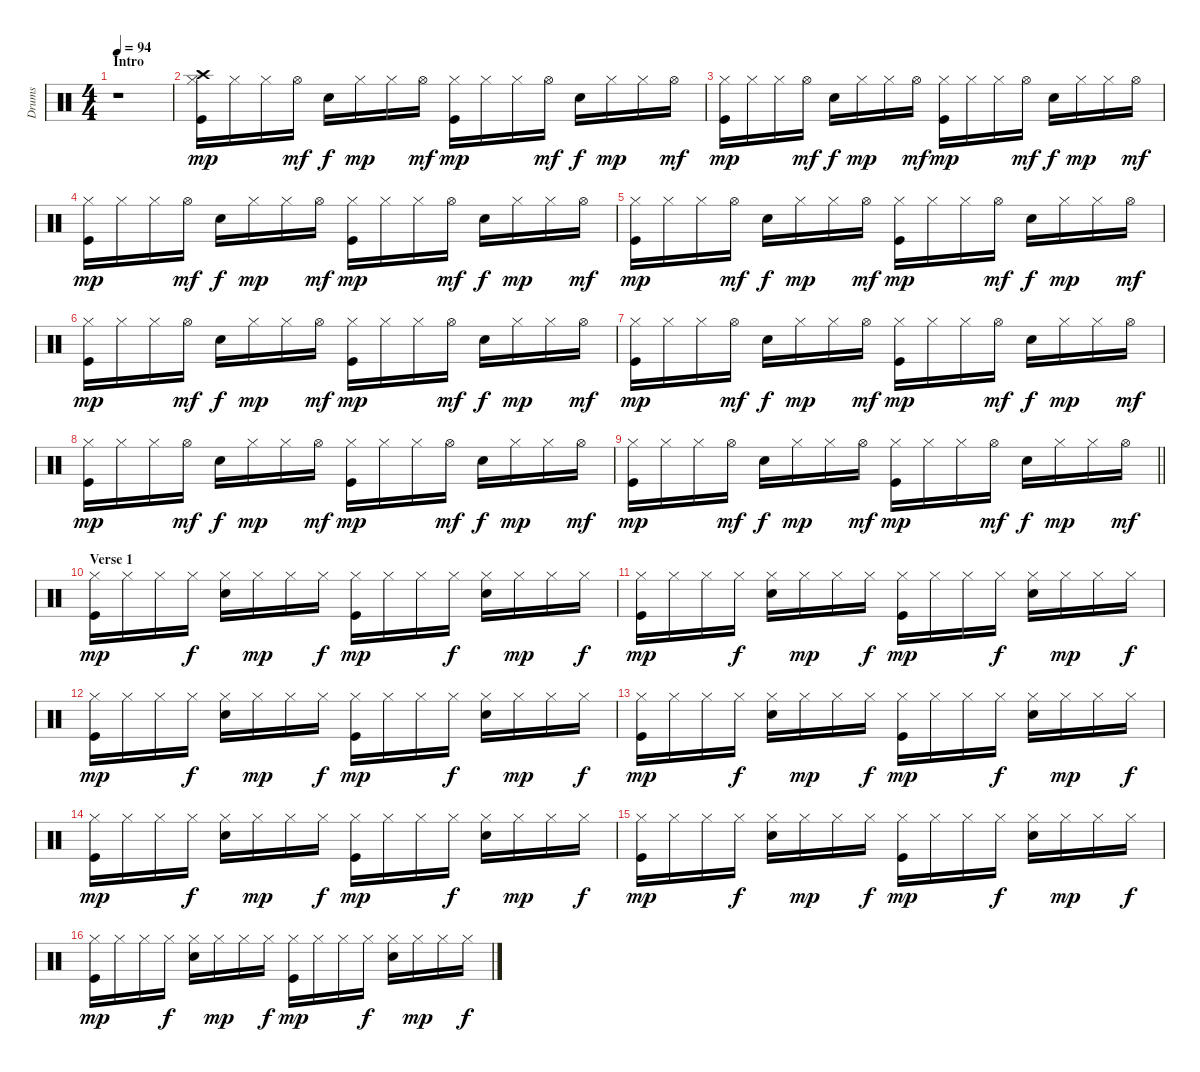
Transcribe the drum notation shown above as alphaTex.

\track ("Drums" "Drums") {instrument percussion}
\staff {score}
\articulation defaults
\ts (4 4)
\section ("" "Intro")
\tempo 94
\clef neutral
\ks c
r.1{dy mp} |
("Crash high (hit)" "Kick (hit)" "Hi-Hat (closed)").16 "Hi-Hat (closed)".16 "Hi-Hat (closed)".16 "Hi-Hat (open)".16{dy mf} "Snare (hit) 2".16{dy f} "Hi-Hat (closed)".16{dy mp} "Hi-Hat (closed)".16 "Hi-Hat (open)".16{dy mf} ("Hi-Hat (closed)" "Kick (hit)").16{dy mp} "Hi-Hat (closed)".16 "Hi-Hat (closed)".16 "Hi-Hat (open)".16{dy mf} "Snare (hit) 2".16{dy f} "Hi-Hat (closed)".16{dy mp} "Hi-Hat (closed)".16 "Hi-Hat (open)".16{dy mf} |
("Hi-Hat (closed)" "Kick (hit)").16{dy mp} "Hi-Hat (closed)".16 "Hi-Hat (closed)".16 "Hi-Hat (open)".16{dy mf} "Snare (hit) 2".16{dy f} "Hi-Hat (closed)".16{dy mp} "Hi-Hat (closed)".16 "Hi-Hat (open)".16{dy mf} ("Hi-Hat (closed)" "Kick (hit)").16{dy mp} "Hi-Hat (closed)".16 "Hi-Hat (closed)".16 "Hi-Hat (open)".16{dy mf} "Snare (hit) 2".16{dy f} "Hi-Hat (closed)".16{dy mp} "Hi-Hat (closed)".16 "Hi-Hat (open)".16{dy mf} |
("Hi-Hat (closed)" "Kick (hit)").16{dy mp} "Hi-Hat (closed)".16 "Hi-Hat (closed)".16 "Hi-Hat (open)".16{dy mf} "Snare (hit) 2".16{dy f} "Hi-Hat (closed)".16{dy mp} "Hi-Hat (closed)".16 "Hi-Hat (open)".16{dy mf} ("Hi-Hat (closed)" "Kick (hit)").16{dy mp} "Hi-Hat (closed)".16 "Hi-Hat (closed)".16 "Hi-Hat (open)".16{dy mf} "Snare (hit) 2".16{dy f} "Hi-Hat (closed)".16{dy mp} "Hi-Hat (closed)".16 "Hi-Hat (open)".16{dy mf} |
("Hi-Hat (closed)" "Kick (hit)").16{dy mp} "Hi-Hat (closed)".16 "Hi-Hat (closed)".16 "Hi-Hat (open)".16{dy mf} "Snare (hit) 2".16{dy f} "Hi-Hat (closed)".16{dy mp} "Hi-Hat (closed)".16 "Hi-Hat (open)".16{dy mf} ("Hi-Hat (closed)" "Kick (hit)").16{dy mp} "Hi-Hat (closed)".16 "Hi-Hat (closed)".16 "Hi-Hat (open)".16{dy mf} "Snare (hit) 2".16{dy f} "Hi-Hat (closed)".16{dy mp} "Hi-Hat (closed)".16 "Hi-Hat (open)".16{dy mf} |
("Hi-Hat (closed)" "Kick (hit)").16{dy mp} "Hi-Hat (closed)".16 "Hi-Hat (closed)".16 "Hi-Hat (open)".16{dy mf} "Snare (hit) 2".16{dy f} "Hi-Hat (closed)".16{dy mp} "Hi-Hat (closed)".16 "Hi-Hat (open)".16{dy mf} ("Hi-Hat (closed)" "Kick (hit)").16{dy mp} "Hi-Hat (closed)".16 "Hi-Hat (closed)".16 "Hi-Hat (open)".16{dy mf} "Snare (hit) 2".16{dy f} "Hi-Hat (closed)".16{dy mp} "Hi-Hat (closed)".16 "Hi-Hat (open)".16{dy mf} |
("Hi-Hat (closed)" "Kick (hit)").16{dy mp} "Hi-Hat (closed)".16 "Hi-Hat (closed)".16 "Hi-Hat (open)".16{dy mf} "Snare (hit) 2".16{dy f} "Hi-Hat (closed)".16{dy mp} "Hi-Hat (closed)".16 "Hi-Hat (open)".16{dy mf} ("Hi-Hat (closed)" "Kick (hit)").16{dy mp} "Hi-Hat (closed)".16 "Hi-Hat (closed)".16 "Hi-Hat (open)".16{dy mf} "Snare (hit) 2".16{dy f} "Hi-Hat (closed)".16{dy mp} "Hi-Hat (closed)".16 "Hi-Hat (open)".16{dy mf} |
("Hi-Hat (closed)" "Kick (hit)").16{dy mp} "Hi-Hat (closed)".16 "Hi-Hat (closed)".16 "Hi-Hat (open)".16{dy mf} "Snare (hit) 2".16{dy f} "Hi-Hat (closed)".16{dy mp} "Hi-Hat (closed)".16 "Hi-Hat (open)".16{dy mf} ("Hi-Hat (closed)" "Kick (hit)").16{dy mp} "Hi-Hat (closed)".16 "Hi-Hat (closed)".16 "Hi-Hat (open)".16{dy mf} "Snare (hit) 2".16{dy f} "Hi-Hat (closed)".16{dy mp} "Hi-Hat (closed)".16 "Hi-Hat (open)".16{dy mf} |
\barLineRight lightlight
("Hi-Hat (closed)" "Kick (hit)").16{dy mp} "Hi-Hat (closed)".16 "Hi-Hat (closed)".16 "Hi-Hat (open)".16{dy mf} "Snare (hit) 2".16{dy f} "Hi-Hat (closed)".16{dy mp} "Hi-Hat (closed)".16 "Hi-Hat (open)".16{dy mf} ("Hi-Hat (closed)" "Kick (hit)").16{dy mp} "Hi-Hat (closed)".16 "Hi-Hat (closed)".16 "Hi-Hat (open)".16{dy mf} "Snare (hit) 2".16{dy f} "Hi-Hat (closed)".16{dy mp} "Hi-Hat (closed)".16 "Hi-Hat (open)".16{dy mf} |
\section ("" "Verse 1")
("Hi-Hat (closed)" "Kick (hit)").16{dy mp} "Hi-Hat (closed)".16 "Hi-Hat (closed)".16 "Hi-Hat (closed)".16{dy f} ("Hi-Hat (closed)" "Snare (hit) 2").16 "Hi-Hat (closed)".16{dy mp} "Hi-Hat (closed)".16 "Hi-Hat (closed)".16{dy f} ("Hi-Hat (closed)" "Kick (hit)").16{dy mp} "Hi-Hat (closed)".16 "Hi-Hat (closed)".16 "Hi-Hat (closed)".16{dy f} ("Hi-Hat (closed)" "Snare (hit) 2").16 "Hi-Hat (closed)".16{dy mp} "Hi-Hat (closed)".16 "Hi-Hat (closed)".16{dy f} |
("Hi-Hat (closed)" "Kick (hit)").16{dy mp} "Hi-Hat (closed)".16 "Hi-Hat (closed)".16 "Hi-Hat (closed)".16{dy f} ("Snare (hit) 2" "Hi-Hat (closed)").16 "Hi-Hat (closed)".16{dy mp} "Hi-Hat (closed)".16 "Hi-Hat (closed)".16{dy f} ("Hi-Hat (closed)" "Kick (hit)").16{dy mp} "Hi-Hat (closed)".16 "Hi-Hat (closed)".16 "Hi-Hat (closed)".16{dy f} ("Snare (hit) 2" "Hi-Hat (closed)").16 "Hi-Hat (closed)".16{dy mp} "Hi-Hat (closed)".16 "Hi-Hat (closed)".16{dy f} |
("Hi-Hat (closed)" "Kick (hit)").16{dy mp} "Hi-Hat (closed)".16 "Hi-Hat (closed)".16 "Hi-Hat (closed)".16{dy f} ("Snare (hit) 2" "Hi-Hat (closed)").16 "Hi-Hat (closed)".16{dy mp} "Hi-Hat (closed)".16 "Hi-Hat (closed)".16{dy f} ("Hi-Hat (closed)" "Kick (hit)").16{dy mp} "Hi-Hat (closed)".16 "Hi-Hat (closed)".16 "Hi-Hat (closed)".16{dy f} ("Snare (hit) 2" "Hi-Hat (closed)").16 "Hi-Hat (closed)".16{dy mp} "Hi-Hat (closed)".16 "Hi-Hat (closed)".16{dy f} |
("Hi-Hat (closed)" "Kick (hit)").16{dy mp} "Hi-Hat (closed)".16 "Hi-Hat (closed)".16 "Hi-Hat (closed)".16{dy f} ("Snare (hit) 2" "Hi-Hat (closed)").16 "Hi-Hat (closed)".16{dy mp} "Hi-Hat (closed)".16 "Hi-Hat (closed)".16{dy f} ("Hi-Hat (closed)" "Kick (hit)").16{dy mp} "Hi-Hat (closed)".16 "Hi-Hat (closed)".16 "Hi-Hat (closed)".16{dy f} ("Snare (hit) 2" "Hi-Hat (closed)").16 "Hi-Hat (closed)".16{dy mp} "Hi-Hat (closed)".16 "Hi-Hat (closed)".16{dy f} |
("Hi-Hat (closed)" "Kick (hit)").16{dy mp} "Hi-Hat (closed)".16 "Hi-Hat (closed)".16 "Hi-Hat (closed)".16{dy f} ("Snare (hit) 2" "Hi-Hat (closed)").16 "Hi-Hat (closed)".16{dy mp} "Hi-Hat (closed)".16 "Hi-Hat (closed)".16{dy f} ("Hi-Hat (closed)" "Kick (hit)").16{dy mp} "Hi-Hat (closed)".16 "Hi-Hat (closed)".16 "Hi-Hat (closed)".16{dy f} ("Snare (hit) 2" "Hi-Hat (closed)").16 "Hi-Hat (closed)".16{dy mp} "Hi-Hat (closed)".16 "Hi-Hat (closed)".16{dy f} |
("Hi-Hat (closed)" "Kick (hit)").16{dy mp} "Hi-Hat (closed)".16 "Hi-Hat (closed)".16 "Hi-Hat (closed)".16{dy f} ("Snare (hit) 2" "Hi-Hat (closed)").16 "Hi-Hat (closed)".16{dy mp} "Hi-Hat (closed)".16 "Hi-Hat (closed)".16{dy f} ("Hi-Hat (closed)" "Kick (hit)").16{dy mp} "Hi-Hat (closed)".16 "Hi-Hat (closed)".16 "Hi-Hat (closed)".16{dy f} ("Snare (hit) 2" "Hi-Hat (closed)").16 "Hi-Hat (closed)".16{dy mp} "Hi-Hat (closed)".16 "Hi-Hat (closed)".16{dy f} |
("Hi-Hat (closed)" "Kick (hit)").16{dy mp} "Hi-Hat (closed)".16 "Hi-Hat (closed)".16 "Hi-Hat (closed)".16{dy f} ("Snare (hit) 2" "Hi-Hat (closed)").16 "Hi-Hat (closed)".16{dy mp} "Hi-Hat (closed)".16 "Hi-Hat (closed)".16{dy f} ("Hi-Hat (closed)" "Kick (hit)").16{dy mp} "Hi-Hat (closed)".16 "Hi-Hat (closed)".16 "Hi-Hat (closed)".16{dy f} ("Snare (hit) 2" "Hi-Hat (closed)").16 "Hi-Hat (closed)".16{dy mp} "Hi-Hat (closed)".16 "Hi-Hat (closed)".16{dy f}
